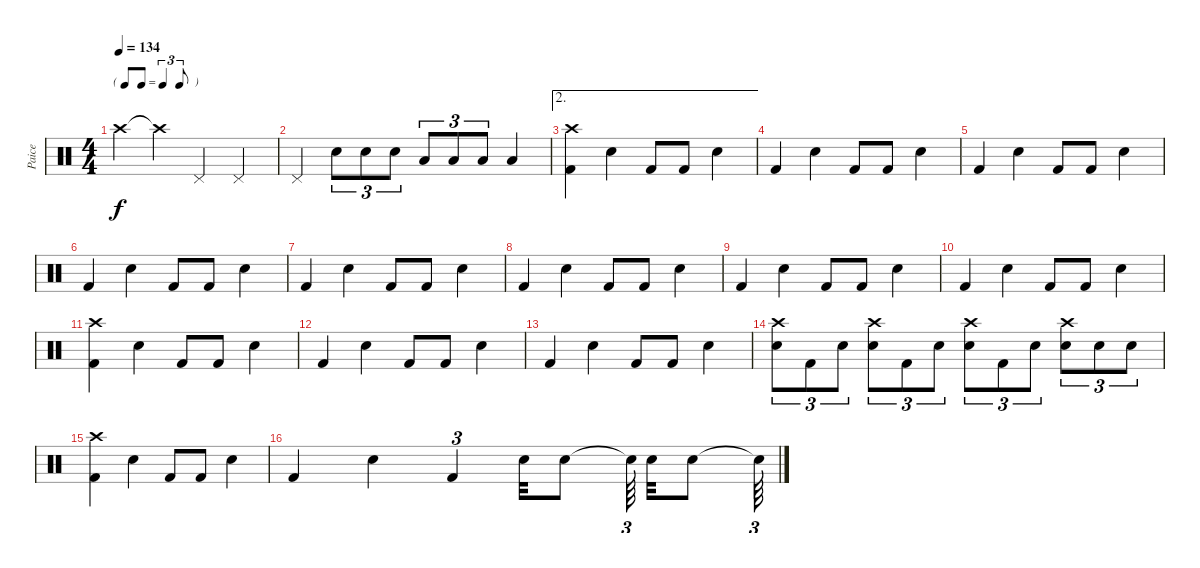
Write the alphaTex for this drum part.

\track ("Paice" "Paice") {instrument percussion}
\staff {score}
\articulation defaults
\ts (4 4)
\tf triplet8th
\tempo 134
\clef neutral
\ks c "Crash high (hit)".4{dy f} "Crash high (hit)"{t}.4 "Pedal Hi-Hat (hit)".4 "Pedal Hi-Hat (hit)".4
|
"Pedal Hi-Hat (hit)".4 "Electric Snare (hit)".8{tu (3 2)} "Electric Snare (hit)".8{tu (3 2)} "Electric Snare (hit)".8{tu (3 2)} "Low Tom (hit)".8{tu (3 2)} "Low Tom (hit)".8{tu (3 2)} "Low Tom (hit)".8{tu (3 2)} "Low Tom (hit)".4 |
\ae 2
("Kick (hit) 2" "Crash high (hit)").4 "Electric Snare (hit)".4 "Kick (hit) 2".8 "Kick (hit) 2".8 "Electric Snare (hit)".4 |
"Kick (hit) 2".4 "Electric Snare (hit)".4 "Kick (hit) 2".8 "Kick (hit) 2".8 "Electric Snare (hit)".4 |
"Kick (hit) 2".4 "Electric Snare (hit)".4 "Kick (hit) 2".8 "Kick (hit) 2".8 "Electric Snare (hit)".4 |
"Kick (hit) 2".4 "Electric Snare (hit)".4 "Kick (hit) 2".8 "Kick (hit) 2".8 "Electric Snare (hit)".4 |
"Kick (hit) 2".4 "Electric Snare (hit)".4 "Kick (hit) 2".8 "Kick (hit) 2".8 "Electric Snare (hit)".4 |
"Kick (hit) 2".4 "Electric Snare (hit)".4 "Kick (hit) 2".8 "Kick (hit) 2".8 "Electric Snare (hit)".4 |
"Kick (hit) 2".4 "Electric Snare (hit)".4 "Kick (hit) 2".8 "Kick (hit) 2".8 "Electric Snare (hit)".4 |
"Kick (hit) 2".4 "Electric Snare (hit)".4 "Kick (hit) 2".8 "Kick (hit) 2".8 "Electric Snare (hit)".4 |
("Kick (hit) 2" "Crash high (hit)").4 "Electric Snare (hit)".4 "Kick (hit) 2".8 "Kick (hit) 2".8 "Electric Snare (hit)".4 |
"Kick (hit) 2".4 "Electric Snare (hit)".4 "Kick (hit) 2".8 "Kick (hit) 2".8 "Electric Snare (hit)".4 |
"Kick (hit) 2".4 "Electric Snare (hit)".4 "Kick (hit) 2".8 "Kick (hit) 2".8 "Electric Snare (hit)".4 |
("Electric Snare (hit)" "Crash high (hit)").8{tu (3 2)} "Kick (hit) 2".8{tu (3 2)} "Electric Snare (hit)".8{tu (3 2)} ("Electric Snare (hit)" "Crash high (hit)").8{tu (3 2)} "Kick (hit) 2".8{tu (3 2)} "Electric Snare (hit)".8{tu (3 2)} ("Electric Snare (hit)" "Crash high (hit)").8{tu (3 2)} "Kick (hit) 2".8{tu (3 2)} "Electric Snare (hit)".8{tu (3 2)} ("Electric Snare (hit)" "Crash high (hit)").8{tu (3 2)} "Electric Snare (hit)".8{tu (3 2)} "Electric Snare (hit)".8{tu (3 2)} |
("Kick (hit) 2" "Crash high (hit)").4 "Electric Snare (hit)".4 "Kick (hit) 2".8 "Kick (hit) 2".8 "Electric Snare (hit)".4 |
"Kick (hit) 2".4 "Electric Snare (hit)".4 "Kick (hit) 2".4{tu (3 2)} "Electric Snare (hit)".32 "Electric Snare (hit)".8 "Electric Snare (hit)"{t}.64{tu (3 2) beam splitsecondary} "Electric Snare (hit)".32 "Electric Snare (hit)".8 "Electric Snare (hit)"{t}.64{tu (3 2)}
